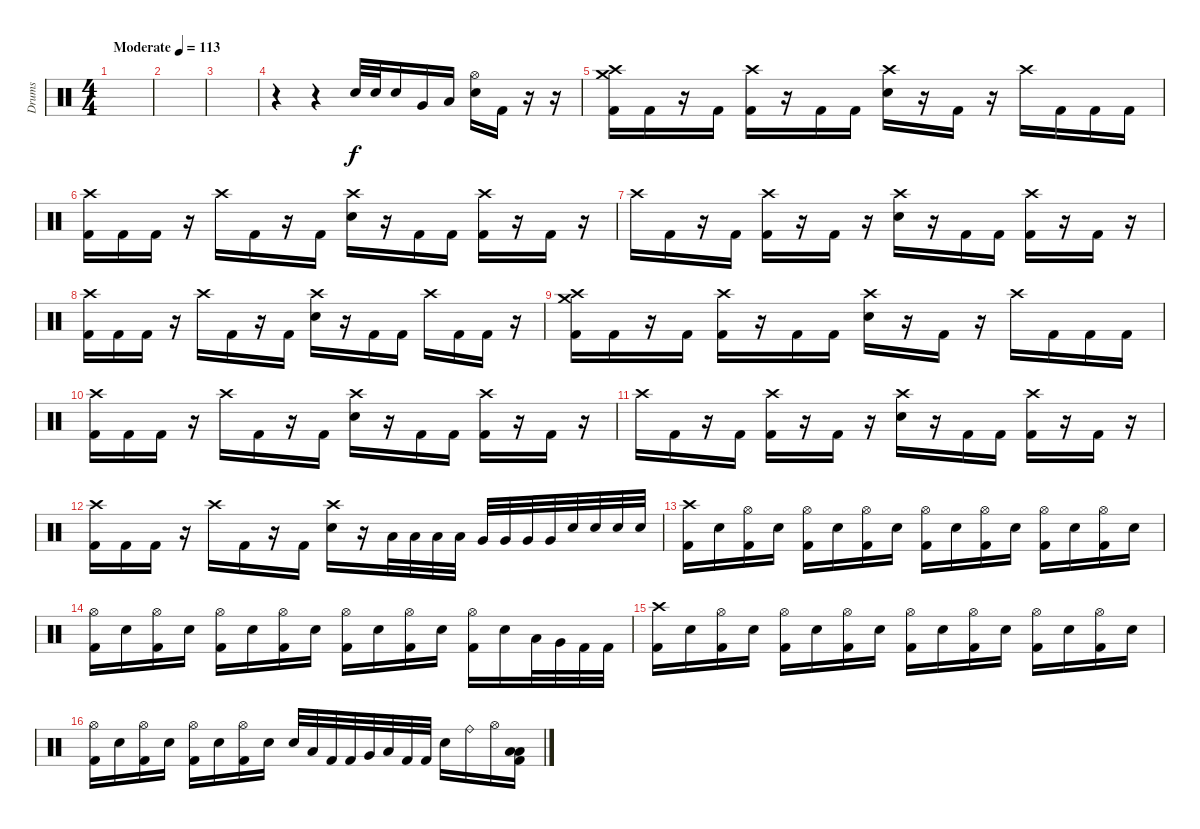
\track ("Drums" "Drums") {instrument percussion}
\staff {score}
\articulation defaults
\ts (4 4)
\tempo (113 "Moderate")
\clef neutral
\ks c
|
|
|
r.4 r.4 "Snare (hit) 2".32 "Snare (hit) 2".32 "Snare (hit) 2".16 "Very Low Tom (hit)".16 "Low Floor Tom (hit)".16 ("Hi-Hat (open)" "Snare (hit) 2").16 "Kick (hit) 2".16 r.16 r.16 |
("Crash medium (hit)" "Crash high (hit)" "Kick (hit) 2").16 "Kick (hit) 2".16 r.16 "Kick (hit) 2".16 ("Crash high (hit)" "Kick (hit) 2").16 r.16 "Kick (hit) 2".16 "Kick (hit) 2".16 ("Crash high (hit)" "Snare (hit) 2").16 r.16 "Kick (hit) 2".16 r.16 "Crash high (hit)".16 "Kick (hit) 2".16 "Kick (hit) 2".16 "Kick (hit) 2".16 |
("Crash high (hit)" "Kick (hit) 2").16 "Kick (hit) 2".16 "Kick (hit) 2".16 r.16 "Crash high (hit)".16 "Kick (hit) 2".16 r.16 "Kick (hit) 2".16 ("Crash high (hit)" "Snare (hit) 2").16 r.16 "Kick (hit) 2".16 "Kick (hit) 2".16 ("Crash high (hit)" "Kick (hit) 2").16 r.16 "Kick (hit) 2".16 r.16 |
"Crash high (hit)".16 "Kick (hit) 2".16 r.16 "Kick (hit) 2".16 ("Crash high (hit)" "Kick (hit) 2").16 r.16 "Kick (hit) 2".16 r.16 ("Crash high (hit)" "Snare (hit) 2").16 r.16 "Kick (hit) 2".16 "Kick (hit) 2".16 ("Crash high (hit)" "Kick (hit) 2").16 r.16 "Kick (hit) 2".16 r.16 |
("Crash high (hit)" "Kick (hit) 2").16 "Kick (hit) 2".16 "Kick (hit) 2".16 r.16 "Crash high (hit)".16 "Kick (hit) 2".16 r.16 "Kick (hit) 2".16 ("Crash high (hit)" "Snare (hit) 2").16 r.16 "Kick (hit) 2".16 "Kick (hit) 2".16 "Crash high (hit)".16 "Kick (hit) 2".16 "Kick (hit) 2".16 r.16 |
("Crash medium (hit)" "Crash high (hit)" "Kick (hit) 2").16 "Kick (hit) 2".16 r.16 "Kick (hit) 2".16 ("Crash high (hit)" "Kick (hit) 2").16 r.16 "Kick (hit) 2".16 "Kick (hit) 2".16 ("Crash high (hit)" "Snare (hit) 2").16 r.16 "Kick (hit) 2".16 r.16 "Crash high (hit)".16 "Kick (hit) 2".16 "Kick (hit) 2".16 "Kick (hit) 2".16 |
("Crash high (hit)" "Kick (hit) 2").16 "Kick (hit) 2".16 "Kick (hit) 2".16 r.16 "Crash high (hit)".16 "Kick (hit) 2".16 r.16 "Kick (hit) 2".16 ("Crash high (hit)" "Snare (hit) 2").16 r.16 "Kick (hit) 2".16 "Kick (hit) 2".16 ("Crash high (hit)" "Kick (hit) 2").16 r.16 "Kick (hit) 2".16 r.16 |
"Crash high (hit)".16 "Kick (hit) 2".16 r.16 "Kick (hit) 2".16 ("Crash high (hit)" "Kick (hit) 2").16 r.16 "Kick (hit) 2".16 r.16 ("Crash high (hit)" "Snare (hit) 2").16 r.16 "Kick (hit) 2".16 "Kick (hit) 2".16 ("Crash high (hit)" "Kick (hit) 2").16 r.16 "Kick (hit) 2".16 r.16 |
("Crash high (hit)" "Kick (hit) 2").16 "Kick (hit) 2".16 "Kick (hit) 2".16 r.16 "Crash high (hit)".16 "Kick (hit) 2".16 r.16 "Kick (hit) 2".16 ("Crash high (hit)" "Snare (hit) 2").16 r.16 "Low Tom (hit)".32 "Low Tom (hit)".32 "Low Tom (hit)".32 "Low Tom (hit)".32 "Very Low Tom (hit)".32 "Very Low Tom (hit)".32 "Very Low Tom (hit)".32 "Very Low Tom (hit)".32 "Snare (hit) 2".32 "Snare (hit) 2".32 "Snare (hit) 2".32 "Snare (hit) 2".32 |
("Crash high (hit)" "Kick (hit) 2").16 "Snare (hit) 2".16 ("Hi-Hat (open)" "Kick (hit) 2").16 "Snare (hit) 2".16 ("Hi-Hat (open)" "Kick (hit) 2").16 "Snare (hit) 2".16 ("Hi-Hat (open)" "Kick (hit) 2").16 "Snare (hit) 2".16 ("Hi-Hat (open)" "Kick (hit) 2").16 "Snare (hit) 2".16 ("Hi-Hat (open)" "Kick (hit) 2").16 "Snare (hit) 2".16 ("Hi-Hat (open)" "Kick (hit) 2").16 "Snare (hit) 2".16 ("Hi-Hat (open)" "Kick (hit) 2").16 "Snare (hit) 2".16 |
("Hi-Hat (open)" "Kick (hit) 2").16 "Snare (hit) 2".16 ("Hi-Hat (open)" "Kick (hit) 2").16 "Snare (hit) 2".16 ("Hi-Hat (open)" "Kick (hit) 2").16 "Snare (hit) 2".16 ("Hi-Hat (open)" "Kick (hit) 2").16 "Snare (hit) 2".16 ("Hi-Hat (open)" "Kick (hit) 2").16 "Snare (hit) 2".16 ("Hi-Hat (open)" "Kick (hit) 2").16 "Snare (hit) 2".16 ("Hi-Hat (open)" "Kick (hit) 2").16 "Snare (hit) 2".16 "Low Tom (hit)".32 "Very Low Tom (hit)".32 "Kick (hit) 2".32 "Kick (hit) 2".32 |
("Crash high (hit)" "Kick (hit) 2").16 "Snare (hit) 2".16 ("Hi-Hat (open)" "Kick (hit) 2").16 "Snare (hit) 2".16 ("Hi-Hat (open)" "Kick (hit) 2").16 "Snare (hit) 2".16 ("Hi-Hat (open)" "Kick (hit) 2").16 "Snare (hit) 2".16 ("Hi-Hat (open)" "Kick (hit) 2").16 "Snare (hit) 2".16 ("Hi-Hat (open)" "Kick (hit) 2").16 "Snare (hit) 2".16 ("Hi-Hat (open)" "Kick (hit) 2").16 "Snare (hit) 2".16 ("Hi-Hat (open)" "Kick (hit) 2").16 "Snare (hit) 2".16 |
("Hi-Hat (open)" "Kick (hit) 2").16 "Snare (hit) 2".16 ("Hi-Hat (open)" "Kick (hit) 2").16 "Snare (hit) 2".16 ("Hi-Hat (open)" "Kick (hit) 2").16 "Snare (hit) 2".16 ("Hi-Hat (open)" "Kick (hit) 2").16 "Snare (hit) 2".16 "Snare (hit) 2".32 "Low Tom (hit)".32 "Kick (hit) 2".32 "Kick (hit) 2".32 "Very Low Tom (hit)".32 "Low Floor Tom (hit)".32 "Kick (hit) 2".32 "Kick (hit) 2".32 "Snare (hit) 2".16 "Ride (bell)".16 "Hi-Hat (open)".16 ("Low Tom (hit)" "Low Floor Tom (hit)" "Kick (hit) 2").16
